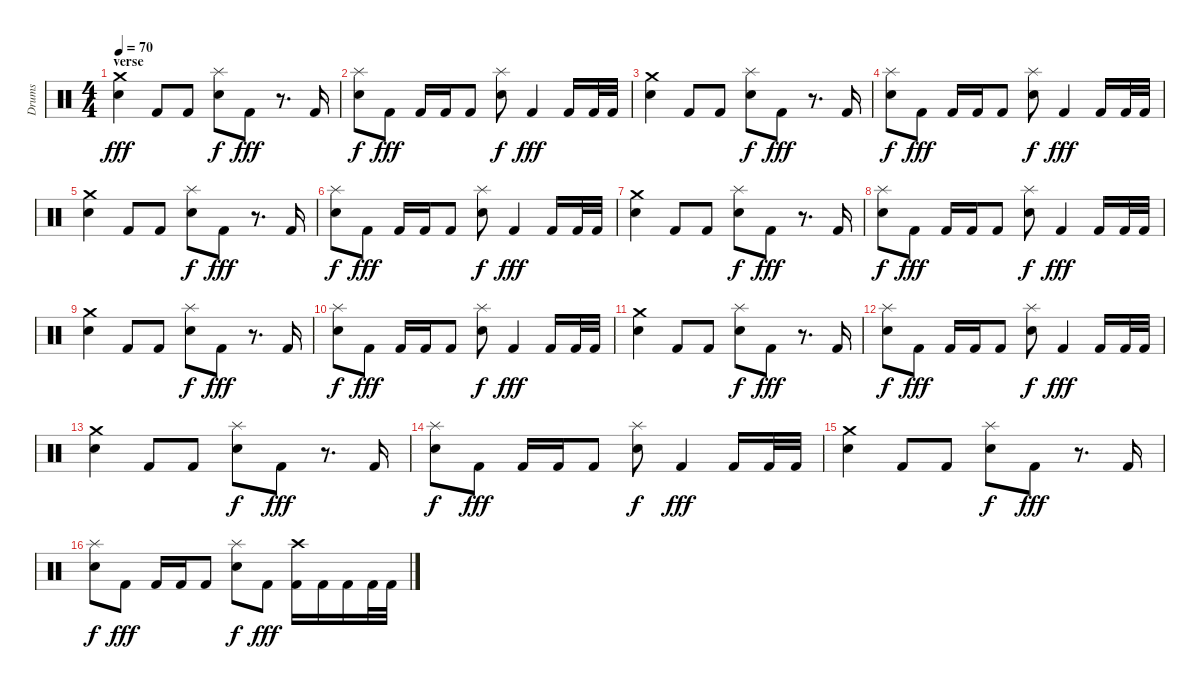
\track ("Drums" "Drums") {instrument percussion}
\staff {score}
\articulation defaults
\ts (4 4)
\section ("" "verse")
\tempo 70
\clef neutral
\ks c
("Electric Snare (hit)" "Crash medium (hit)").4{dy fff} "Kick (hit) 2".8 "Kick (hit) 2".8 ("Electric Snare (hit)" "Splash (hit)").8{dy f} "Kick (hit) 2".8{dy fff} r.8{d} "Kick (hit) 2".16 |
("Splash (hit)" "Electric Snare (hit)").8{dy f} "Kick (hit) 2".8{dy fff} "Kick (hit) 2".16 "Kick (hit) 2".16 "Kick (hit) 2".8 ("Splash (hit)" "Electric Snare (hit)").8{dy f} "Kick (hit) 2".4{dy fff} "Kick (hit) 2".16 "Kick (hit) 2".32 "Kick (hit) 2".32 |
("Electric Snare (hit)" "Crash medium (hit)").4 "Kick (hit) 2".8 "Kick (hit) 2".8 ("Electric Snare (hit)" "Splash (hit)").8{dy f} "Kick (hit) 2".8{dy fff} r.8{d} "Kick (hit) 2".16 |
("Splash (hit)" "Electric Snare (hit)").8{dy f} "Kick (hit) 2".8{dy fff} "Kick (hit) 2".16 "Kick (hit) 2".16 "Kick (hit) 2".8 ("Splash (hit)" "Electric Snare (hit)").8{dy f} "Kick (hit) 2".4{dy fff} "Kick (hit) 2".16 "Kick (hit) 2".32 "Kick (hit) 2".32 |
("Electric Snare (hit)" "Crash medium (hit)").4 "Kick (hit) 2".8 "Kick (hit) 2".8 ("Electric Snare (hit)" "Splash (hit)").8{dy f} "Kick (hit) 2".8{dy fff} r.8{d} "Kick (hit) 2".16 |
("Splash (hit)" "Electric Snare (hit)").8{dy f} "Kick (hit) 2".8{dy fff} "Kick (hit) 2".16 "Kick (hit) 2".16 "Kick (hit) 2".8 ("Splash (hit)" "Electric Snare (hit)").8{dy f} "Kick (hit) 2".4{dy fff} "Kick (hit) 2".16 "Kick (hit) 2".32 "Kick (hit) 2".32 |
("Electric Snare (hit)" "Crash medium (hit)").4 "Kick (hit) 2".8 "Kick (hit) 2".8 ("Electric Snare (hit)" "Splash (hit)").8{dy f} "Kick (hit) 2".8{dy fff} r.8{d} "Kick (hit) 2".16 |
("Splash (hit)" "Electric Snare (hit)").8{dy f} "Kick (hit) 2".8{dy fff} "Kick (hit) 2".16 "Kick (hit) 2".16 "Kick (hit) 2".8 ("Splash (hit)" "Electric Snare (hit)").8{dy f} "Kick (hit) 2".4{dy fff} "Kick (hit) 2".16 "Kick (hit) 2".32 "Kick (hit) 2".32 |
("Electric Snare (hit)" "Crash medium (hit)").4 "Kick (hit) 2".8 "Kick (hit) 2".8 ("Electric Snare (hit)" "Splash (hit)").8{dy f} "Kick (hit) 2".8{dy fff} r.8{d} "Kick (hit) 2".16 |
("Splash (hit)" "Electric Snare (hit)").8{dy f} "Kick (hit) 2".8{dy fff} "Kick (hit) 2".16 "Kick (hit) 2".16 "Kick (hit) 2".8 ("Splash (hit)" "Electric Snare (hit)").8{dy f} "Kick (hit) 2".4{dy fff} "Kick (hit) 2".16 "Kick (hit) 2".32 "Kick (hit) 2".32 |
("Electric Snare (hit)" "Crash medium (hit)").4 "Kick (hit) 2".8 "Kick (hit) 2".8 ("Electric Snare (hit)" "Splash (hit)").8{dy f} "Kick (hit) 2".8{dy fff} r.8{d} "Kick (hit) 2".16 |
("Splash (hit)" "Electric Snare (hit)").8{dy f} "Kick (hit) 2".8{dy fff} "Kick (hit) 2".16 "Kick (hit) 2".16 "Kick (hit) 2".8 ("Splash (hit)" "Electric Snare (hit)").8{dy f} "Kick (hit) 2".4{dy fff} "Kick (hit) 2".16 "Kick (hit) 2".32 "Kick (hit) 2".32 |
("Electric Snare (hit)" "Crash medium (hit)").4 "Kick (hit) 2".8 "Kick (hit) 2".8 ("Electric Snare (hit)" "Splash (hit)").8{dy f} "Kick (hit) 2".8{dy fff} r.8{d} "Kick (hit) 2".16 |
("Splash (hit)" "Electric Snare (hit)").8{dy f} "Kick (hit) 2".8{dy fff} "Kick (hit) 2".16 "Kick (hit) 2".16 "Kick (hit) 2".8 ("Splash (hit)" "Electric Snare (hit)").8{dy f} "Kick (hit) 2".4{dy fff} "Kick (hit) 2".16 "Kick (hit) 2".32 "Kick (hit) 2".32 |
("Electric Snare (hit)" "Crash medium (hit)").4 "Kick (hit) 2".8 "Kick (hit) 2".8 ("Electric Snare (hit)" "Splash (hit)").8{dy f} "Kick (hit) 2".8{dy fff} r.8{d} "Kick (hit) 2".16 |
("Splash (hit)" "Electric Snare (hit)").8{dy f} "Kick (hit) 2".8{dy fff} "Kick (hit) 2".16 "Kick (hit) 2".16 "Kick (hit) 2".8 ("Splash (hit)" "Electric Snare (hit)").8{dy f} "Kick (hit) 2".8{dy fff} ("Crash high (hit)" "Kick (hit) 2").16 "Kick (hit) 2".16 "Kick (hit) 2".16 "Kick (hit) 2".32 "Kick (hit) 2".32
